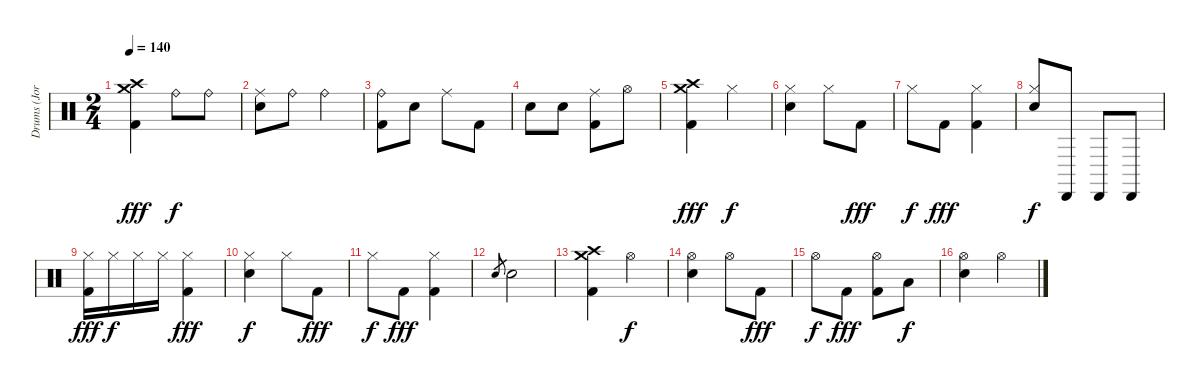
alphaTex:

\track ("Drums (Jordan Hastings)" "Drums (Jor") {instrument percussion}
\staff {score}
\articulation defaults
\ts (2 4)
\tempo 140
\clef neutral
\ks c
("Crash medium (hit)" "Crash high (hit)" "Kick (hit) 2").4{dy fff} "Ride (bell)".8{dy f} "Ride (bell)".8 |
("Ride (middle)" "Electric Snare (hit)").8 "Ride (bell)".8 "Ride (bell)".4 |
("Ride (bell)" "Kick (hit) 2").8 "Electric Snare (hit)".8 "Ride (middle)".8 "Kick (hit) 2".8 |
"Electric Snare (hit)".8 "Electric Snare (hit)".8 ("Ride (middle)" "Kick (hit) 2").8 "Hi-Hat (open)".8 |
("Crash medium (hit)" "Crash high (hit)" "Kick (hit) 2").4{dy fff} "Hi-Hat (closed)".4{dy f} |
("Hi-Hat (closed)" "Electric Snare (hit)").4 "Hi-Hat (closed)".8 "Kick (hit) 2".8{dy fff} |
"Hi-Hat (closed)".8{dy f} "Kick (hit) 2".8{dy fff} ("Hi-Hat (closed)" "Kick (hit) 2").4 |
("Hi-Hat (closed)" "Electric Snare (hit)").8{dy f} "Cabasa (hit)".8 "Cabasa (hit)".8 "Cabasa (hit)".8 |
("Hi-Hat (closed)" "Kick (hit) 2").16{dy fff} "Hi-Hat (closed)".16{dy f} "Hi-Hat (closed)".16 "Hi-Hat (closed)".16 ("Hi-Hat (closed)" "Kick (hit) 2").4{dy fff} |
("Hi-Hat (closed)" "Electric Snare (hit)").4{dy f} "Hi-Hat (closed)".8 "Kick (hit) 2".8{dy fff} |
"Hi-Hat (closed)".8{dy f} "Kick (hit) 2".8{dy fff} ("Hi-Hat (closed)" "Kick (hit) 2").4 |
"Electric Snare (hit)".8{gr} "Electric Snare (hit)".2 |
("Crash medium (hit)" "Crash high (hit)" "Kick (hit) 2").4 "Hi-Hat (open)".4{dy f} |
("Hi-Hat (open)" "Electric Snare (hit)").4 "Hi-Hat (open)".8 "Kick (hit) 2".8{dy fff} |
"Hi-Hat (open)".8{dy f} "Kick (hit) 2".8{dy fff} ("Hi-Hat (open)" "Kick (hit) 2").8 "Low Tom (hit)".8{dy f} |
("Hi-Hat (open)" "Electric Snare (hit)").4 "Hi-Hat (open)".4
